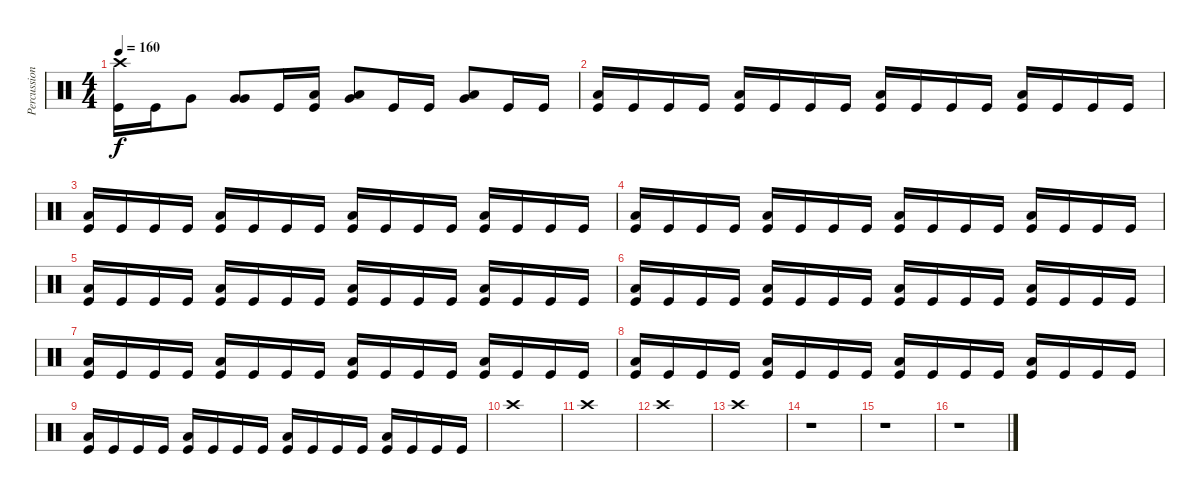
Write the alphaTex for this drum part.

\track ("Percussion" "Percussion") {instrument percussion}
\staff {score}
\articulation defaults
\ts (4 4)
\tempo 160
\clef neutral
\ks c
("Crash high (hit)" "Kick (hit)").16{dy f} "Kick (hit)".16 "Very Low Tom (hit)".8 ("Very Low Tom (hit)" "Very Low Tom (hit)").8 "Kick (hit)".16 ("Low Floor Tom (hit)" "Kick (hit)").16 ("Low Floor Tom (hit)" "Very Low Tom (hit)").8 "Kick (hit)".16 "Kick (hit)".16 ("Low Floor Tom (hit)" "Very Low Tom (hit)").8 "Kick (hit)".16 "Kick (hit)".16 |
("Low Floor Tom (hit)" "Kick (hit)").16 "Kick (hit)".16 "Kick (hit)".16 "Kick (hit)".16 ("Low Floor Tom (hit)" "Kick (hit)").16 "Kick (hit)".16 "Kick (hit)".16 "Kick (hit)".16 ("Low Floor Tom (hit)" "Kick (hit)").16 "Kick (hit)".16 "Kick (hit)".16 "Kick (hit)".16 ("Low Floor Tom (hit)" "Kick (hit)").16 "Kick (hit)".16 "Kick (hit)".16 "Kick (hit)".16 |
("Low Floor Tom (hit)" "Kick (hit)").16 "Kick (hit)".16 "Kick (hit)".16 "Kick (hit)".16 ("Low Floor Tom (hit)" "Kick (hit)").16 "Kick (hit)".16 "Kick (hit)".16 "Kick (hit)".16 ("Low Floor Tom (hit)" "Kick (hit)").16 "Kick (hit)".16 "Kick (hit)".16 "Kick (hit)".16 ("Low Floor Tom (hit)" "Kick (hit)").16 "Kick (hit)".16 "Kick (hit)".16 "Kick (hit)".16 |
("Low Floor Tom (hit)" "Kick (hit)").16 "Kick (hit)".16 "Kick (hit)".16 "Kick (hit)".16 ("Low Floor Tom (hit)" "Kick (hit)").16 "Kick (hit)".16 "Kick (hit)".16 "Kick (hit)".16 ("Low Floor Tom (hit)" "Kick (hit)").16 "Kick (hit)".16 "Kick (hit)".16 "Kick (hit)".16 ("Low Floor Tom (hit)" "Kick (hit)").16 "Kick (hit)".16 "Kick (hit)".16 "Kick (hit)".16 |
("Low Floor Tom (hit)" "Kick (hit)").16 "Kick (hit)".16 "Kick (hit)".16 "Kick (hit)".16 ("Low Floor Tom (hit)" "Kick (hit)").16 "Kick (hit)".16 "Kick (hit)".16 "Kick (hit)".16 ("Low Floor Tom (hit)" "Kick (hit)").16 "Kick (hit)".16 "Kick (hit)".16 "Kick (hit)".16 ("Low Floor Tom (hit)" "Kick (hit)").16 "Kick (hit)".16 "Kick (hit)".16 "Kick (hit)".16 |
("Low Floor Tom (hit)" "Kick (hit)").16 "Kick (hit)".16 "Kick (hit)".16 "Kick (hit)".16 ("Low Floor Tom (hit)" "Kick (hit)").16 "Kick (hit)".16 "Kick (hit)".16 "Kick (hit)".16 ("Low Floor Tom (hit)" "Kick (hit)").16 "Kick (hit)".16 "Kick (hit)".16 "Kick (hit)".16 ("Low Floor Tom (hit)" "Kick (hit)").16 "Kick (hit)".16 "Kick (hit)".16 "Kick (hit)".16 |
("Low Floor Tom (hit)" "Kick (hit)").16 "Kick (hit)".16 "Kick (hit)".16 "Kick (hit)".16 ("Low Floor Tom (hit)" "Kick (hit)").16 "Kick (hit)".16 "Kick (hit)".16 "Kick (hit)".16 ("Low Floor Tom (hit)" "Kick (hit)").16 "Kick (hit)".16 "Kick (hit)".16 "Kick (hit)".16 ("Low Floor Tom (hit)" "Kick (hit)").16 "Kick (hit)".16 "Kick (hit)".16 "Kick (hit)".16 |
("Low Floor Tom (hit)" "Kick (hit)").16 "Kick (hit)".16 "Kick (hit)".16 "Kick (hit)".16 ("Low Floor Tom (hit)" "Kick (hit)").16 "Kick (hit)".16 "Kick (hit)".16 "Kick (hit)".16 ("Low Floor Tom (hit)" "Kick (hit)").16 "Kick (hit)".16 "Kick (hit)".16 "Kick (hit)".16 ("Low Floor Tom (hit)" "Kick (hit)").16 "Kick (hit)".16 "Kick (hit)".16 "Kick (hit)".16 |
("Low Floor Tom (hit)" "Kick (hit)").16 "Kick (hit)".16 "Kick (hit)".16 "Kick (hit)".16 ("Low Floor Tom (hit)" "Kick (hit)").16 "Kick (hit)".16 "Kick (hit)".16 "Kick (hit)".16 ("Low Floor Tom (hit)" "Kick (hit)").16 "Kick (hit)".16 "Kick (hit)".16 "Kick (hit)".16 ("Low Floor Tom (hit)" "Kick (hit)").16 "Kick (hit)".16 "Kick (hit)".16 "Kick (hit)".16 |
"Crash high (hit)".1 |
"Crash high (hit)".1 |
"Crash high (hit)".1 |
"Crash high (hit)".1 |
r.1 |
r.1 |
r.1
